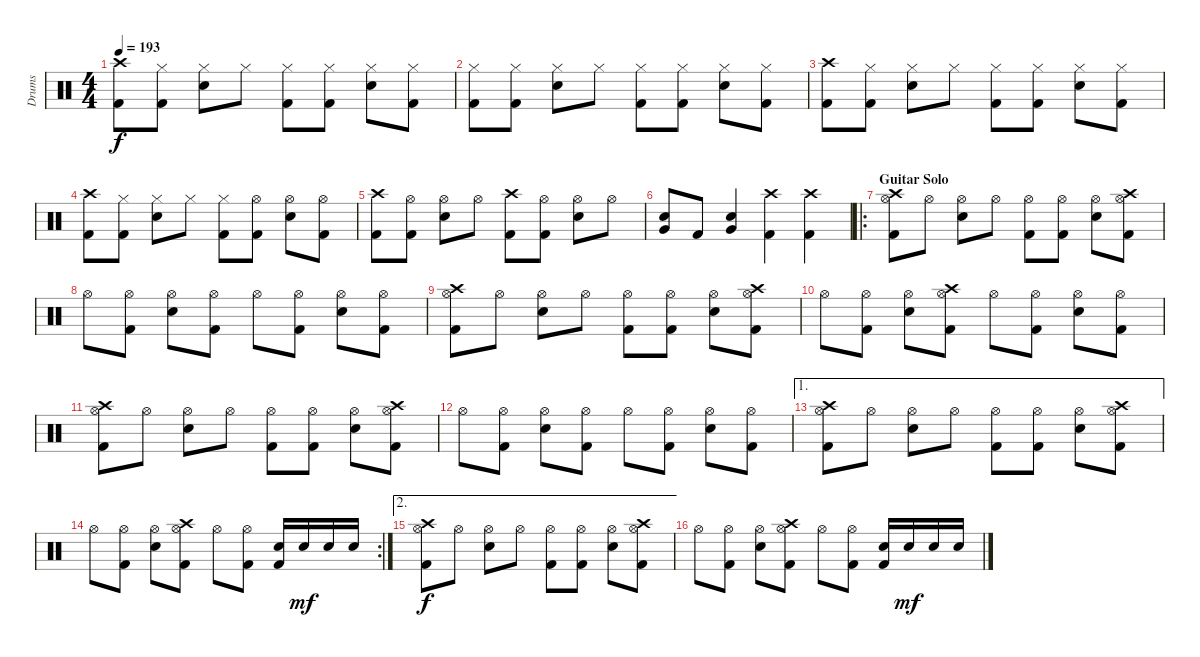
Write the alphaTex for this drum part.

\track ("Drums" "Drums") {instrument percussion}
\staff {score}
\articulation defaults
\ts (4 4)
\tempo 193
\clef neutral
\ks c
("Crash high (hit)" "Kick (hit) 2").8{dy f} ("Hi-Hat (closed)" "Kick (hit) 2").8 ("Hi-Hat (closed)" "Electric Snare (hit)").8 "Hi-Hat (closed)".8 ("Hi-Hat (closed)" "Kick (hit) 2").8 ("Hi-Hat (closed)" "Kick (hit) 2").8 ("Hi-Hat (closed)" "Electric Snare (hit)").8 ("Hi-Hat (closed)" "Kick (hit) 2").8 |
("Hi-Hat (closed)" "Kick (hit) 2").8 ("Hi-Hat (closed)" "Kick (hit) 2").8 ("Hi-Hat (closed)" "Electric Snare (hit)").8 "Hi-Hat (closed)".8 ("Hi-Hat (closed)" "Kick (hit) 2").8 ("Hi-Hat (closed)" "Kick (hit) 2").8 ("Hi-Hat (closed)" "Electric Snare (hit)").8 ("Hi-Hat (closed)" "Kick (hit) 2").8 |
("Crash high (hit)" "Kick (hit) 2").8 ("Hi-Hat (closed)" "Kick (hit) 2").8 ("Hi-Hat (closed)" "Electric Snare (hit)").8 "Hi-Hat (closed)".8 ("Hi-Hat (closed)" "Kick (hit) 2").8 ("Hi-Hat (closed)" "Kick (hit) 2").8 ("Hi-Hat (closed)" "Electric Snare (hit)").8 ("Hi-Hat (closed)" "Kick (hit) 2").8 |
("Crash high (hit)" "Kick (hit) 2").8 ("Hi-Hat (closed)" "Kick (hit) 2").8 ("Hi-Hat (closed)" "Electric Snare (hit)").8 "Hi-Hat (closed)".8 ("Hi-Hat (closed)" "Kick (hit) 2").8 ("Hi-Hat (open)" "Kick (hit) 2").8 ("Hi-Hat (open)" "Electric Snare (hit)").8 ("Hi-Hat (open)" "Kick (hit) 2").8 |
("Crash high (hit)" "Kick (hit) 2").8 ("Hi-Hat (open)" "Kick (hit) 2").8 ("Hi-Hat (open)" "Electric Snare (hit)").8 "Hi-Hat (open)".8 ("Crash high (hit)" "Kick (hit) 2").8 ("Hi-Hat (open)" "Kick (hit) 2").8 ("Hi-Hat (open)" "Electric Snare (hit)").8 "Hi-Hat (open)".8 |
("Very Low Tom (hit)" "Electric Snare (hit)").8 "Kick (hit) 2".8 ("Very Low Tom (hit)" "Electric Snare (hit)").4 ("Crash high (hit)" "Kick (hit) 2").4 ("Crash high (hit)" "Kick (hit) 2").4 |
\ro
\section ("" "Guitar Solo")
("Crash high (hit)" "Hi-Hat (open)" "Kick (hit) 2").8 "Hi-Hat (open)".8 ("Hi-Hat (open)" "Electric Snare (hit)").8 "Hi-Hat (open)".8 ("Hi-Hat (open)" "Kick (hit) 2").8 ("Hi-Hat (open)" "Kick (hit) 2").8 ("Hi-Hat (open)" "Electric Snare (hit)").8 ("Crash high (hit)" "Hi-Hat (open)" "Kick (hit) 2").8 |
"Hi-Hat (open)".8 ("Hi-Hat (open)" "Kick (hit) 2").8 ("Hi-Hat (open)" "Electric Snare (hit)").8 ("Hi-Hat (open)" "Kick (hit) 2").8 "Hi-Hat (open)".8 ("Hi-Hat (open)" "Kick (hit) 2").8 ("Hi-Hat (open)" "Electric Snare (hit)").8 ("Hi-Hat (open)" "Kick (hit) 2").8 |
("Crash high (hit)" "Hi-Hat (open)" "Kick (hit) 2").8 "Hi-Hat (open)".8 ("Hi-Hat (open)" "Electric Snare (hit)").8 "Hi-Hat (open)".8 ("Hi-Hat (open)" "Kick (hit) 2").8 ("Hi-Hat (open)" "Kick (hit) 2").8 ("Hi-Hat (open)" "Electric Snare (hit)").8 ("Crash high (hit)" "Hi-Hat (open)" "Kick (hit) 2").8 |
"Hi-Hat (open)".8 ("Hi-Hat (open)" "Kick (hit) 2").8 ("Hi-Hat (open)" "Electric Snare (hit)").8 ("Crash high (hit)" "Hi-Hat (open)" "Kick (hit) 2").8 "Hi-Hat (open)".8 ("Hi-Hat (open)" "Kick (hit) 2").8 ("Hi-Hat (open)" "Electric Snare (hit)").8 ("Hi-Hat (open)" "Kick (hit) 2").8 |
("Crash high (hit)" "Hi-Hat (open)" "Kick (hit) 2").8 "Hi-Hat (open)".8 ("Hi-Hat (open)" "Electric Snare (hit)").8 "Hi-Hat (open)".8 ("Hi-Hat (open)" "Kick (hit) 2").8 ("Hi-Hat (open)" "Kick (hit) 2").8 ("Hi-Hat (open)" "Electric Snare (hit)").8 ("Crash high (hit)" "Hi-Hat (open)" "Kick (hit) 2").8 |
"Hi-Hat (open)".8 ("Hi-Hat (open)" "Kick (hit) 2").8 ("Hi-Hat (open)" "Electric Snare (hit)").8 ("Hi-Hat (open)" "Kick (hit) 2").8 "Hi-Hat (open)".8 ("Hi-Hat (open)" "Kick (hit) 2").8 ("Hi-Hat (open)" "Electric Snare (hit)").8 ("Hi-Hat (open)" "Kick (hit) 2").8 |
\ae 1
("Crash high (hit)" "Hi-Hat (open)" "Kick (hit) 2").8 "Hi-Hat (open)".8 ("Hi-Hat (open)" "Electric Snare (hit)").8 "Hi-Hat (open)".8 ("Hi-Hat (open)" "Kick (hit) 2").8 ("Hi-Hat (open)" "Kick (hit) 2").8 ("Hi-Hat (open)" "Electric Snare (hit)").8 ("Crash high (hit)" "Hi-Hat (open)" "Kick (hit) 2").8 |
\rc 2 "Hi-Hat (open)".8
("Hi-Hat (open)" "Kick (hit) 2").8 ("Hi-Hat (open)" "Electric Snare (hit)").8 ("Crash high (hit)" "Hi-Hat (open)" "Kick (hit) 2").8 "Hi-Hat (open)".8 ("Hi-Hat (open)" "Kick (hit) 2").8 ("Electric Snare (hit)" "Kick (hit) 2").16 "Electric Snare (hit)".16{dy mf} "Electric Snare (hit)".16 "Electric Snare (hit)".16 |
\ae 2
("Crash high (hit)" "Hi-Hat (open)" "Kick (hit) 2").8{dy f} "Hi-Hat (open)".8 ("Hi-Hat (open)" "Electric Snare (hit)").8 "Hi-Hat (open)".8 ("Hi-Hat (open)" "Kick (hit) 2").8 ("Hi-Hat (open)" "Kick (hit) 2").8 ("Hi-Hat (open)" "Electric Snare (hit)").8 ("Crash high (hit)" "Hi-Hat (open)" "Kick (hit) 2").8 |
"Hi-Hat (open)".8 ("Hi-Hat (open)" "Kick (hit) 2").8 ("Hi-Hat (open)" "Electric Snare (hit)").8 ("Crash high (hit)" "Hi-Hat (open)" "Kick (hit) 2").8 "Hi-Hat (open)".8 ("Hi-Hat (open)" "Kick (hit) 2").8 ("Electric Snare (hit)" "Kick (hit) 2").16 "Electric Snare (hit)".16{dy mf} "Electric Snare (hit)".16 "Electric Snare (hit)".16
